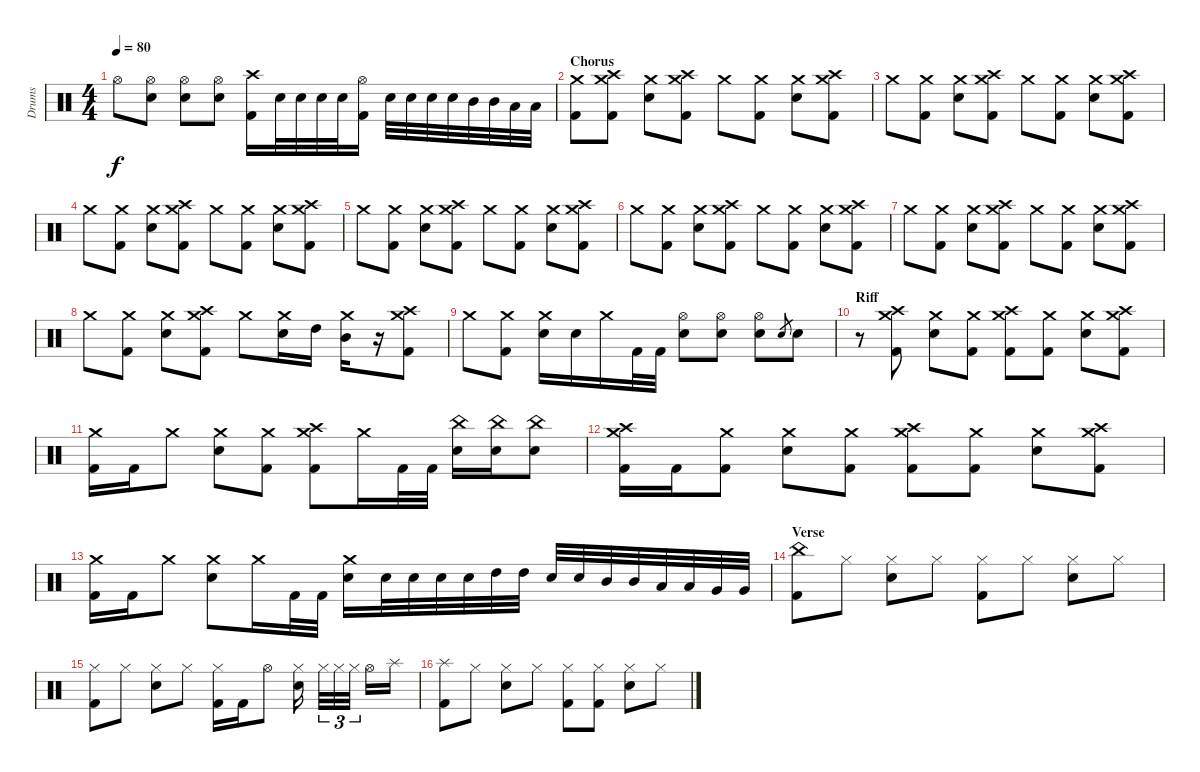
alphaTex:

\track ("Drums" "Drums") {instrument percussion}
\staff {score}
\articulation defaults
\ts (4 4)
\tempo 80
\clef neutral
\ks c "Hi-Hat (open)".8{dy f}
("Hi-Hat (open)" "Electric Snare (hit)").8 ("Hi-Hat (open)" "Electric Snare (hit)").8 ("Hi-Hat (open)" "Electric Snare (hit)").8 ("Crash high (hit)" "Kick (hit) 2").16 "Electric Snare (hit)".32 "Electric Snare (hit)".32 "Electric Snare (hit)".32 "Electric Snare (hit)".32 ("Hi-Hat (open)" "Kick (hit) 2").16 "Electric Snare (hit)".32 "Electric Snare (hit)".32 "Electric Snare (hit)".32 "Electric Snare (hit)".32 "Mid Tom (hit)".32 "Mid Tom (hit)".32 "Low Tom (hit)".32 "Low Tom (hit)".32 |
\section ("" "Chorus")
("Crash medium (hit)" "Kick (hit) 2").8 ("Crash medium (hit)" "Crash high (hit)" "Kick (hit) 2").8 ("Crash medium (hit)" "Electric Snare (hit)").8 ("Crash medium (hit)" "Crash high (hit)" "Kick (hit) 2").8 "Crash medium (hit)".8 ("Crash medium (hit)" "Kick (hit) 2").8 ("Crash medium (hit)" "Electric Snare (hit)").8 ("Crash medium (hit)" "Crash high (hit)" "Kick (hit) 2").8 |
"Crash medium (hit)".8 ("Crash medium (hit)" "Kick (hit) 2").8 ("Crash medium (hit)" "Electric Snare (hit)").8 ("Crash medium (hit)" "Crash high (hit)" "Kick (hit) 2").8 "Crash medium (hit)".8 ("Crash medium (hit)" "Kick (hit) 2").8 ("Crash medium (hit)" "Electric Snare (hit)").8 ("Crash medium (hit)" "Crash high (hit)" "Kick (hit) 2").8 |
"Crash medium (hit)".8 ("Crash medium (hit)" "Kick (hit) 2").8 ("Crash medium (hit)" "Electric Snare (hit)").8 ("Crash medium (hit)" "Crash high (hit)" "Kick (hit) 2").8 "Crash medium (hit)".8 ("Crash medium (hit)" "Kick (hit) 2").8 ("Crash medium (hit)" "Electric Snare (hit)").8 ("Crash medium (hit)" "Crash high (hit)" "Kick (hit) 2").8 |
"Crash medium (hit)".8 ("Crash medium (hit)" "Kick (hit) 2").8 ("Crash medium (hit)" "Electric Snare (hit)").8 ("Crash medium (hit)" "Crash high (hit)" "Kick (hit) 2").8 "Crash medium (hit)".8 ("Crash medium (hit)" "Kick (hit) 2").8 ("Crash medium (hit)" "Electric Snare (hit)").8 ("Crash medium (hit)" "Crash high (hit)" "Kick (hit) 2").8 |
"Crash medium (hit)".8 ("Crash medium (hit)" "Kick (hit) 2").8 ("Crash medium (hit)" "Electric Snare (hit)").8 ("Crash medium (hit)" "Crash high (hit)" "Kick (hit) 2").8 "Crash medium (hit)".8 ("Crash medium (hit)" "Kick (hit) 2").8 ("Crash medium (hit)" "Electric Snare (hit)").8 ("Crash medium (hit)" "Crash high (hit)" "Kick (hit) 2").8 |
"Crash medium (hit)".8 ("Crash medium (hit)" "Kick (hit) 2").8 ("Crash medium (hit)" "Electric Snare (hit)").8 ("Crash medium (hit)" "Crash high (hit)" "Kick (hit) 2").8 "Crash medium (hit)".8 ("Crash medium (hit)" "Kick (hit) 2").8 ("Crash medium (hit)" "Electric Snare (hit)").8 ("Crash medium (hit)" "Crash high (hit)" "Kick (hit) 2").8 |
"Crash medium (hit)".8 ("Crash medium (hit)" "Kick (hit) 2").8 ("Crash medium (hit)" "Electric Snare (hit)").8 ("Crash medium (hit)" "Crash high (hit)" "Kick (hit) 2").8 "Crash medium (hit)".8 ("Crash medium (hit)" "Electric Snare (hit)").16 "High Tom (hit)".16 ("Crash medium (hit)" "Mid Tom (hit)").16 r.16 ("Crash medium (hit)" "Crash high (hit)" "Kick (hit) 2").8 |
"Crash medium (hit)".8 ("Crash medium (hit)" "Kick (hit) 2").8 ("Crash medium (hit)" "Electric Snare (hit)").16 "Electric Snare (hit)".16 "Crash medium (hit)".16 "Kick (hit) 2".32 "Kick (hit) 2".32 ("Hi-Hat (open)" "Electric Snare (hit)").8 ("Hi-Hat (open)" "Electric Snare (hit)").8 ("Hi-Hat (open)" "Electric Snare (hit)").8 "Electric Snare (hit)".8{gr} "Electric Snare (hit)".8 |
\section ("" "Riff")
r.8 ("Crash high (hit)" "Crash medium (hit)" "Kick (hit) 2").8 ("Crash medium (hit)" "Electric Snare (hit)").8 ("Crash medium (hit)" "Kick (hit) 2").8 ("Crash medium (hit)" "Crash high (hit)" "Kick (hit) 2").8 ("Crash medium (hit)" "Kick (hit) 2").8 ("Crash medium (hit)" "Electric Snare (hit)").8 ("Crash medium (hit)" "Crash high (hit)" "Kick (hit) 2").8 |
("Crash medium (hit)" "Kick (hit) 2").16 "Kick (hit) 2".16 "Crash medium (hit)".8 ("Crash medium (hit)" "Electric Snare (hit)").8 ("Crash medium (hit)" "Kick (hit) 2").8 ("Crash medium (hit)" "Crash high (hit)" "Kick (hit) 2").8 "Crash medium (hit)".16 "Kick (hit) 2".32 "Kick (hit) 2".32 ("China (hit)" "Electric Snare (hit)").16 ("China (hit)" "Electric Snare (hit)").16 ("China (hit)" "Electric Snare (hit)").8 |
("Crash medium (hit)" "Crash high (hit)" "Kick (hit) 2").16 "Kick (hit) 2".16 ("Crash medium (hit)" "Kick (hit) 2").8 ("Crash medium (hit)" "Electric Snare (hit)").8 ("Crash medium (hit)" "Kick (hit) 2").8 ("Crash medium (hit)" "Crash high (hit)" "Kick (hit) 2").8 ("Crash medium (hit)" "Kick (hit) 2").8 ("Crash medium (hit)" "Electric Snare (hit)").8 ("Crash medium (hit)" "Crash high (hit)" "Kick (hit) 2").8 |
("Crash medium (hit)" "Kick (hit) 2").16 "Kick (hit) 2".16 "Crash medium (hit)".8 ("Crash medium (hit)" "Electric Snare (hit)").8 "Crash medium (hit)".16 "Kick (hit) 2".32 "Kick (hit) 2".32 ("Crash medium (hit)" "Electric Snare (hit)").16 "Electric Snare (hit)".32 "Electric Snare (hit)".32 "Electric Snare (hit)".32 "Electric Snare (hit)".32 "High Tom (hit)".32 "High Tom (hit)".32 "Electric Snare (hit)".32 "Electric Snare (hit)".32 "Mid Tom (hit)".32 "Mid Tom (hit)".32 "Low Tom (hit)".32 "Low Tom (hit)".32 "Very Low Tom (hit)".32 "Very Low Tom (hit)".32 |
\section ("" "Verse")
("China (hit)" "Kick (hit) 2").8 "Hi-Hat (closed)".8 ("Hi-Hat (closed)" "Electric Snare (hit)").8 "Hi-Hat (closed)".8 ("Hi-Hat (closed)" "Kick (hit) 2").8 "Hi-Hat (closed)".8 ("Hi-Hat (closed)" "Electric Snare (hit)").8 "Hi-Hat (closed)".8 |
("Hi-Hat (closed)" "Kick (hit) 2").8 "Hi-Hat (closed)".8 ("Hi-Hat (closed)" "Electric Snare (hit)").8 "Hi-Hat (closed)".8 ("Hi-Hat (closed)" "Kick (hit) 2").16 "Kick (hit) 2".16 "Hi-Hat (open)".8 ("Hi-Hat (closed)" "Electric Snare (hit)").16 "Hi-Hat (closed)".32{tu (3 2)} "Hi-Hat (closed)".32{tu (3 2)} "Hi-Hat (closed)".32{tu (3 2)} "Hi-Hat (open)".16 "Splash (hit)".16 |
("Splash (hit)" "Kick (hit) 2").8 "Hi-Hat (closed)".8 ("Hi-Hat (closed)" "Electric Snare (hit)").8 "Hi-Hat (closed)".8 ("Hi-Hat (closed)" "Kick (hit) 2").8 ("Hi-Hat (closed)" "Kick (hit) 2").8 ("Hi-Hat (closed)" "Electric Snare (hit)").8 "Hi-Hat (closed)".8
